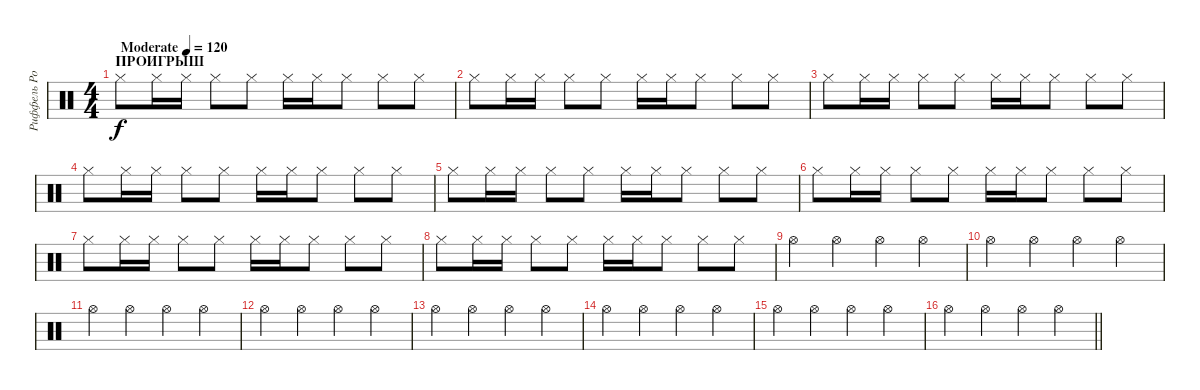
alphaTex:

\track ("Риффель Роман(хэты)" "Риффель Ро") {instrument percussion}
\staff {score}
\articulation defaults
\ts (4 4)
\section ("" "ПРОИГРЫШ")
\tempo (120 "Moderate")
\clef neutral
\ks c "Hi-Hat (closed)".8{dy f} "Hi-Hat (closed)".16 "Hi-Hat (closed)".16 "Hi-Hat (closed)".8 "Hi-Hat (closed)".8 "Hi-Hat (closed)".16 "Hi-Hat (closed)".16 "Hi-Hat (closed)".8 "Hi-Hat (closed)".8 "Hi-Hat (closed)".8
|
"Hi-Hat (closed)".8 "Hi-Hat (closed)".16 "Hi-Hat (closed)".16 "Hi-Hat (closed)".8 "Hi-Hat (closed)".8 "Hi-Hat (closed)".16 "Hi-Hat (closed)".16 "Hi-Hat (closed)".8 "Hi-Hat (closed)".8 "Hi-Hat (closed)".8 |
"Hi-Hat (closed)".8 "Hi-Hat (closed)".16 "Hi-Hat (closed)".16 "Hi-Hat (closed)".8 "Hi-Hat (closed)".8 "Hi-Hat (closed)".16 "Hi-Hat (closed)".16 "Hi-Hat (closed)".8 "Hi-Hat (closed)".8 "Hi-Hat (closed)".8 |
"Hi-Hat (closed)".8 "Hi-Hat (closed)".16 "Hi-Hat (closed)".16 "Hi-Hat (closed)".8 "Hi-Hat (closed)".8 "Hi-Hat (closed)".16 "Hi-Hat (closed)".16 "Hi-Hat (closed)".8 "Hi-Hat (closed)".8 "Hi-Hat (closed)".8 |
"Hi-Hat (closed)".8 "Hi-Hat (closed)".16 "Hi-Hat (closed)".16 "Hi-Hat (closed)".8 "Hi-Hat (closed)".8 "Hi-Hat (closed)".16 "Hi-Hat (closed)".16 "Hi-Hat (closed)".8 "Hi-Hat (closed)".8 "Hi-Hat (closed)".8 |
"Hi-Hat (closed)".8 "Hi-Hat (closed)".16 "Hi-Hat (closed)".16 "Hi-Hat (closed)".8 "Hi-Hat (closed)".8 "Hi-Hat (closed)".16 "Hi-Hat (closed)".16 "Hi-Hat (closed)".8 "Hi-Hat (closed)".8 "Hi-Hat (closed)".8 |
"Hi-Hat (closed)".8 "Hi-Hat (closed)".16 "Hi-Hat (closed)".16 "Hi-Hat (closed)".8 "Hi-Hat (closed)".8 "Hi-Hat (closed)".16 "Hi-Hat (closed)".16 "Hi-Hat (closed)".8 "Hi-Hat (closed)".8 "Hi-Hat (closed)".8 |
"Hi-Hat (closed)".8 "Hi-Hat (closed)".16 "Hi-Hat (closed)".16 "Hi-Hat (closed)".8 "Hi-Hat (closed)".8 "Hi-Hat (closed)".16 "Hi-Hat (closed)".16 "Hi-Hat (closed)".8 "Hi-Hat (closed)".8 "Hi-Hat (closed)".8 |
"Hi-Hat (open)".4 "Hi-Hat (open)".4 "Hi-Hat (open)".4 "Hi-Hat (open)".4 |
"Hi-Hat (open)".4 "Hi-Hat (open)".4 "Hi-Hat (open)".4 "Hi-Hat (open)".4 |
"Hi-Hat (open)".4 "Hi-Hat (open)".4 "Hi-Hat (open)".4 "Hi-Hat (open)".4 |
"Hi-Hat (open)".4 "Hi-Hat (open)".4 "Hi-Hat (open)".4 "Hi-Hat (open)".4 |
"Hi-Hat (open)".4 "Hi-Hat (open)".4 "Hi-Hat (open)".4 "Hi-Hat (open)".4 |
"Hi-Hat (open)".4 "Hi-Hat (open)".4 "Hi-Hat (open)".4 "Hi-Hat (open)".4 |
"Hi-Hat (open)".4 "Hi-Hat (open)".4 "Hi-Hat (open)".4 "Hi-Hat (open)".4 |
\barLineRight lightlight "Hi-Hat (open)".4 "Hi-Hat (open)".4 "Hi-Hat (open)".4 "Hi-Hat (open)".4
